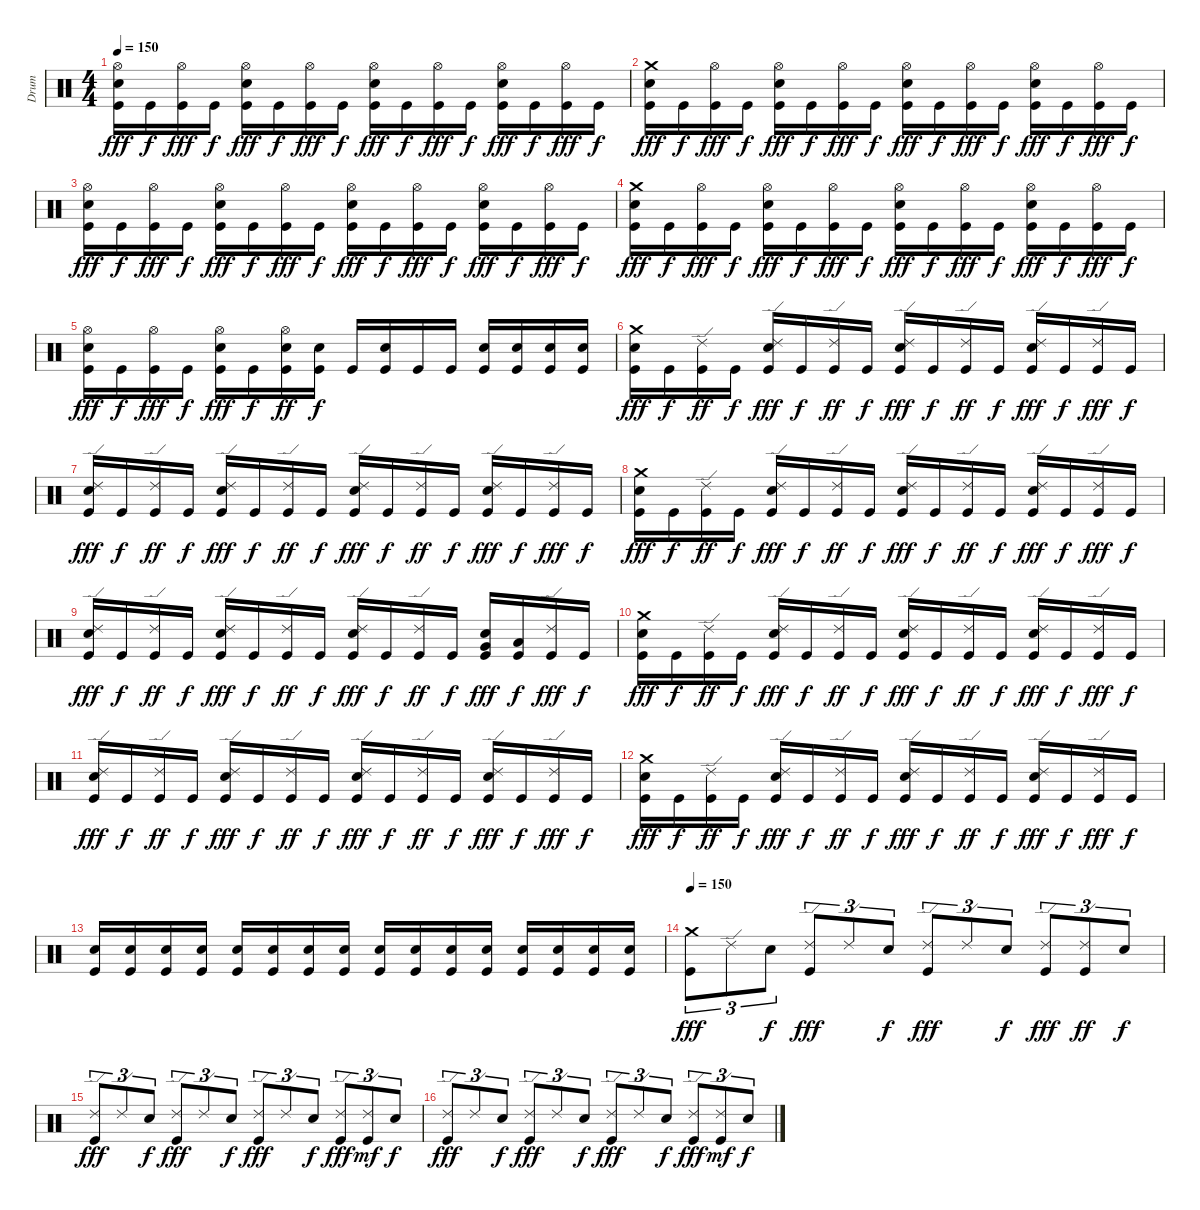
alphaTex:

\track ("Drum" "Drum") {instrument percussion}
\staff {score}
\articulation defaults
\ts (4 4)
\tempo 150
\clef neutral
\ks c
("Hi-Hat (open)" "Snare (hit) 2" "Kick (hit)").16{dy fff} "Kick (hit)".16{dy f} ("Hi-Hat (open)" "Kick (hit)").16{dy fff} "Kick (hit)".16{dy f} ("Hi-Hat (open)" "Snare (hit) 2" "Kick (hit)").16{dy fff} "Kick (hit)".16{dy f} ("Hi-Hat (open)" "Kick (hit)").16{dy fff} "Kick (hit)".16{dy f} ("Hi-Hat (open)" "Snare (hit) 2" "Kick (hit)").16{dy fff} "Kick (hit)".16{dy f} ("Hi-Hat (open)" "Kick (hit)").16{dy fff} "Kick (hit)".16{dy f} ("Hi-Hat (open)" "Snare (hit) 2" "Kick (hit)").16{dy fff} "Kick (hit)".16{dy f} ("Hi-Hat (open)" "Kick (hit)").16{dy fff} "Kick (hit)".16{dy f} |
("Crash medium (hit)" "Snare (hit) 2" "Kick (hit)").16{dy fff} "Kick (hit)".16{dy f} ("Hi-Hat (open)" "Kick (hit)").16{dy fff} "Kick (hit)".16{dy f} ("Hi-Hat (open)" "Snare (hit) 2" "Kick (hit)").16{dy fff} "Kick (hit)".16{dy f} ("Hi-Hat (open)" "Kick (hit)").16{dy fff} "Kick (hit)".16{dy f} ("Hi-Hat (open)" "Snare (hit) 2" "Kick (hit)").16{dy fff} "Kick (hit)".16{dy f} ("Hi-Hat (open)" "Kick (hit)").16{dy fff} "Kick (hit)".16{dy f} ("Hi-Hat (open)" "Snare (hit) 2" "Kick (hit)").16{dy fff} "Kick (hit)".16{dy f} ("Hi-Hat (open)" "Kick (hit)").16{dy fff} "Kick (hit)".16{dy f} |
("Hi-Hat (open)" "Snare (hit) 2" "Kick (hit)").16{dy fff} "Kick (hit)".16{dy f} ("Hi-Hat (open)" "Kick (hit)").16{dy fff} "Kick (hit)".16{dy f} ("Hi-Hat (open)" "Snare (hit) 2" "Kick (hit)").16{dy fff} "Kick (hit)".16{dy f} ("Hi-Hat (open)" "Kick (hit)").16{dy fff} "Kick (hit)".16{dy f} ("Hi-Hat (open)" "Snare (hit) 2" "Kick (hit)").16{dy fff} "Kick (hit)".16{dy f} ("Hi-Hat (open)" "Kick (hit)").16{dy fff} "Kick (hit)".16{dy f} ("Hi-Hat (open)" "Snare (hit) 2" "Kick (hit)").16{dy fff} "Kick (hit)".16{dy f} ("Hi-Hat (open)" "Kick (hit)").16{dy fff} "Kick (hit)".16{dy f} |
("Crash medium (hit)" "Snare (hit) 2" "Kick (hit)").16{dy fff} "Kick (hit)".16{dy f} ("Hi-Hat (open)" "Kick (hit)").16{dy fff} "Kick (hit)".16{dy f} ("Hi-Hat (open)" "Snare (hit) 2" "Kick (hit)").16{dy fff} "Kick (hit)".16{dy f} ("Hi-Hat (open)" "Kick (hit)").16{dy fff} "Kick (hit)".16{dy f} ("Hi-Hat (open)" "Snare (hit) 2" "Kick (hit)").16{dy fff} "Kick (hit)".16{dy f} ("Hi-Hat (open)" "Kick (hit)").16{dy fff} "Kick (hit)".16{dy f} ("Hi-Hat (open)" "Snare (hit) 2" "Kick (hit)").16{dy fff} "Kick (hit)".16{dy f} ("Hi-Hat (open)" "Kick (hit)").16{dy fff} "Kick (hit)".16{dy f} |
("Hi-Hat (open)" "Snare (hit) 2" "Kick (hit)").16{dy fff} "Kick (hit)".16{dy f} ("Hi-Hat (open)" "Kick (hit)").16{dy fff} "Kick (hit)".16{dy f} ("Hi-Hat (open)" "Snare (hit) 2" "Kick (hit)").16{dy fff} "Kick (hit)".16{dy f} ("Hi-Hat (open)" "Snare (hit) 2" "Kick (hit)").16{dy ff} ("Snare (hit) 2" "Kick (hit)").16{dy f} "Kick (hit)".16 ("Snare (hit) 2" "Kick (hit)").16 "Kick (hit)".16 "Kick (hit)".16 ("Snare (hit) 2" "Kick (hit)").16 ("Snare (hit) 2" "Kick (hit)").16 ("Snare (hit) 2" "Kick (hit)").16 ("Snare (hit) 2" "Kick (hit)").16 |
("Crash medium (hit)" "Snare (hit) 2" "Kick (hit)").16{dy fff} "Kick (hit)".16{dy f} ("Ride (edge) 2" "Kick (hit)").16{dy ff} "Kick (hit)".16{dy f} ("Ride (edge) 2" "Snare (hit) 2" "Kick (hit)").16{dy fff} "Kick (hit)".16{dy f} ("Ride (edge) 2" "Kick (hit)").16{dy ff} "Kick (hit)".16{dy f} ("Ride (edge) 2" "Snare (hit) 2" "Kick (hit)").16{dy fff} "Kick (hit)".16{dy f} ("Ride (edge) 2" "Kick (hit)").16{dy ff} "Kick (hit)".16{dy f} ("Ride (edge) 2" "Snare (hit) 2" "Kick (hit)").16{dy fff} "Kick (hit)".16{dy f} ("Ride (edge) 2" "Kick (hit)").16{dy fff} "Kick (hit)".16{dy f} |
("Ride (edge) 2" "Snare (hit) 2" "Kick (hit)").16{dy fff} "Kick (hit)".16{dy f} ("Ride (edge) 2" "Kick (hit)").16{dy ff} "Kick (hit)".16{dy f} ("Ride (edge) 2" "Snare (hit) 2" "Kick (hit)").16{dy fff} "Kick (hit)".16{dy f} ("Ride (edge) 2" "Kick (hit)").16{dy ff} "Kick (hit)".16{dy f} ("Ride (edge) 2" "Snare (hit) 2" "Kick (hit)").16{dy fff} "Kick (hit)".16{dy f} ("Ride (edge) 2" "Kick (hit)").16{dy ff} "Kick (hit)".16{dy f} ("Ride (edge) 2" "Snare (hit) 2" "Kick (hit)").16{dy fff} "Kick (hit)".16{dy f} ("Ride (edge) 2" "Kick (hit)").16{dy fff} "Kick (hit)".16{dy f} |
("Crash medium (hit)" "Snare (hit) 2" "Kick (hit)").16{dy fff} "Kick (hit)".16{dy f} ("Ride (edge) 2" "Kick (hit)").16{dy ff} "Kick (hit)".16{dy f} ("Ride (edge) 2" "Snare (hit) 2" "Kick (hit)").16{dy fff} "Kick (hit)".16{dy f} ("Ride (edge) 2" "Kick (hit)").16{dy ff} "Kick (hit)".16{dy f} ("Ride (edge) 2" "Snare (hit) 2" "Kick (hit)").16{dy fff} "Kick (hit)".16{dy f} ("Ride (edge) 2" "Kick (hit)").16{dy ff} "Kick (hit)".16{dy f} ("Ride (edge) 2" "Snare (hit) 2" "Kick (hit)").16{dy fff} "Kick (hit)".16{dy f} ("Ride (edge) 2" "Kick (hit)").16{dy fff} "Kick (hit)".16{dy f} |
("Ride (edge) 2" "Snare (hit) 2" "Kick (hit)").16{dy fff} "Kick (hit)".16{dy f} ("Ride (edge) 2" "Kick (hit)").16{dy ff} "Kick (hit)".16{dy f} ("Ride (edge) 2" "Snare (hit) 2" "Kick (hit)").16{dy fff} "Kick (hit)".16{dy f} ("Ride (edge) 2" "Kick (hit)").16{dy ff} "Kick (hit)".16{dy f} ("Ride (edge) 2" "Snare (hit) 2" "Kick (hit)").16{dy fff} "Kick (hit)".16{dy f} ("Ride (edge) 2" "Kick (hit)").16{dy ff} "Kick (hit)".16{dy f} ("Snare (hit) 2" "Very Low Tom (hit)" "Kick (hit)").16{dy fff} ("Low Floor Tom (hit)" "Kick (hit)").16{dy f} ("Ride (edge) 2" "Kick (hit)").16{dy fff} "Kick (hit)".16{dy f} |
("Crash medium (hit)" "Snare (hit) 2" "Kick (hit)").16{dy fff} "Kick (hit)".16{dy f} ("Ride (edge) 2" "Kick (hit)").16{dy ff} "Kick (hit)".16{dy f} ("Ride (edge) 2" "Snare (hit) 2" "Kick (hit)").16{dy fff} "Kick (hit)".16{dy f} ("Ride (edge) 2" "Kick (hit)").16{dy ff} "Kick (hit)".16{dy f} ("Ride (edge) 2" "Snare (hit) 2" "Kick (hit)").16{dy fff} "Kick (hit)".16{dy f} ("Ride (edge) 2" "Kick (hit)").16{dy ff} "Kick (hit)".16{dy f} ("Ride (edge) 2" "Snare (hit) 2" "Kick (hit)").16{dy fff} "Kick (hit)".16{dy f} ("Ride (edge) 2" "Kick (hit)").16{dy fff} "Kick (hit)".16{dy f} |
("Ride (edge) 2" "Snare (hit) 2" "Kick (hit)").16{dy fff} "Kick (hit)".16{dy f} ("Ride (edge) 2" "Kick (hit)").16{dy ff} "Kick (hit)".16{dy f} ("Ride (edge) 2" "Snare (hit) 2" "Kick (hit)").16{dy fff} "Kick (hit)".16{dy f} ("Ride (edge) 2" "Kick (hit)").16{dy ff} "Kick (hit)".16{dy f} ("Ride (edge) 2" "Snare (hit) 2" "Kick (hit)").16{dy fff} "Kick (hit)".16{dy f} ("Ride (edge) 2" "Kick (hit)").16{dy ff} "Kick (hit)".16{dy f} ("Ride (edge) 2" "Snare (hit) 2" "Kick (hit)").16{dy fff} "Kick (hit)".16{dy f} ("Ride (edge) 2" "Kick (hit)").16{dy fff} "Kick (hit)".16{dy f} |
("Crash medium (hit)" "Snare (hit) 2" "Kick (hit)").16{dy fff} "Kick (hit)".16{dy f} ("Ride (edge) 2" "Kick (hit)").16{dy ff} "Kick (hit)".16{dy f} ("Ride (edge) 2" "Snare (hit) 2" "Kick (hit)").16{dy fff} "Kick (hit)".16{dy f} ("Ride (edge) 2" "Kick (hit)").16{dy ff} "Kick (hit)".16{dy f} ("Ride (edge) 2" "Snare (hit) 2" "Kick (hit)").16{dy fff} "Kick (hit)".16{dy f} ("Ride (edge) 2" "Kick (hit)").16{dy ff} "Kick (hit)".16{dy f} ("Ride (edge) 2" "Snare (hit) 2" "Kick (hit)").16{dy fff} "Kick (hit)".16{dy f} ("Ride (edge) 2" "Kick (hit)").16{dy fff} "Kick (hit)".16{dy f} |
("Snare (hit) 2" "Kick (hit)").16 ("Snare (hit) 2" "Kick (hit)").16 ("Snare (hit) 2" "Kick (hit)").16 ("Snare (hit) 2" "Kick (hit)").16 ("Snare (hit) 2" "Kick (hit)").16 ("Snare (hit) 2" "Kick (hit)").16 ("Snare (hit) 2" "Kick (hit)").16 ("Snare (hit) 2" "Kick (hit)").16 ("Snare (hit) 2" "Kick (hit)").16 ("Snare (hit) 2" "Kick (hit)").16 ("Snare (hit) 2" "Kick (hit)").16 ("Snare (hit) 2" "Kick (hit)").16 ("Snare (hit) 2" "Kick (hit)").16 ("Snare (hit) 2" "Kick (hit)").16 ("Snare (hit) 2" "Kick (hit)").16 ("Snare (hit) 2" "Kick (hit)").16 |
\tempo 150
("Crash medium (hit)" "Kick (hit)").8{tu (3 2) dy fff} "Ride (edge) 2".8{tu (3 2)} "Snare (hit) 2".8{tu (3 2) dy f} ("Ride (edge) 2" "Kick (hit)").8{tu (3 2) dy fff} "Ride (edge) 2".8{tu (3 2)} "Snare (hit) 2".8{tu (3 2) dy f} ("Ride (edge) 2" "Kick (hit)").8{tu (3 2) dy fff} "Ride (edge) 2".8{tu (3 2)} "Snare (hit) 2".8{tu (3 2) dy f} ("Ride (edge) 2" "Kick (hit)").8{tu (3 2) dy fff} ("Ride (edge) 2" "Kick (hit)").8{tu (3 2) dy ff} "Snare (hit) 2".8{tu (3 2) dy f} |
("Ride (edge) 2" "Kick (hit)").8{tu (3 2) dy fff} "Ride (edge) 2".8{tu (3 2)} "Snare (hit) 2".8{tu (3 2) dy f} ("Ride (edge) 2" "Kick (hit)").8{tu (3 2) dy fff} "Ride (edge) 2".8{tu (3 2)} "Snare (hit) 2".8{tu (3 2) dy f} ("Ride (edge) 2" "Kick (hit)").8{tu (3 2) dy fff} "Ride (edge) 2".8{tu (3 2)} "Snare (hit) 2".8{tu (3 2) dy f} ("Ride (edge) 2" "Kick (hit)").8{tu (3 2) dy fff} ("Ride (edge) 2" "Kick (hit)").8{tu (3 2) dy mf} "Snare (hit) 2".8{tu (3 2) dy f} |
("Ride (edge) 2" "Kick (hit)").8{tu (3 2) dy fff} "Ride (edge) 2".8{tu (3 2)} "Snare (hit) 2".8{tu (3 2) dy f} ("Ride (edge) 2" "Kick (hit)").8{tu (3 2) dy fff} "Ride (edge) 2".8{tu (3 2)} "Snare (hit) 2".8{tu (3 2) dy f} ("Ride (edge) 2" "Kick (hit)").8{tu (3 2) dy fff} "Ride (edge) 2".8{tu (3 2)} "Snare (hit) 2".8{tu (3 2) dy f} ("Ride (edge) 2" "Kick (hit)").8{tu (3 2) dy fff} ("Ride (edge) 2" "Kick (hit)").8{tu (3 2) dy mf} "Snare (hit) 2".8{tu (3 2) dy f}
